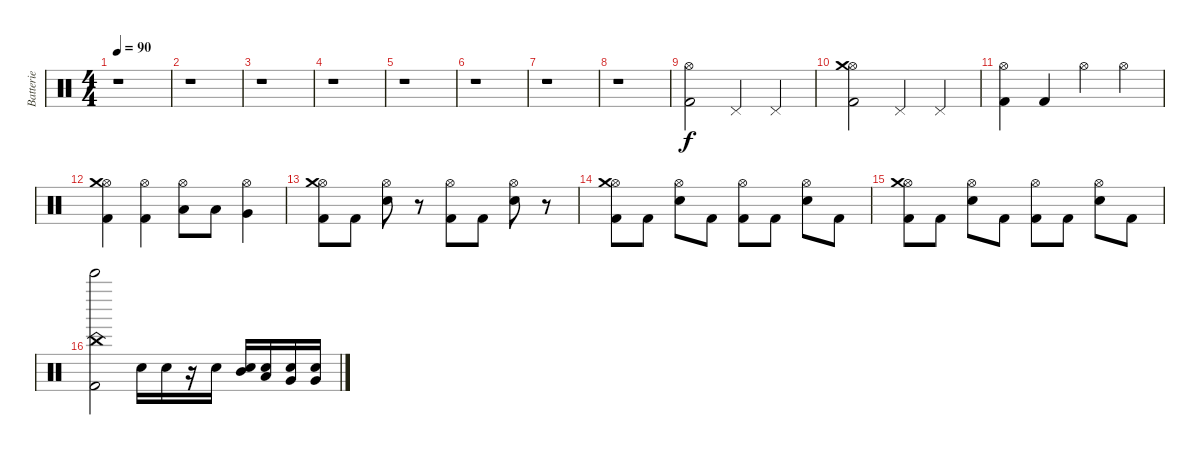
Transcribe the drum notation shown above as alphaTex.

\track ("Batterie" "Batterie") {instrument percussion}
\staff {score}
\articulation defaults
\ts (4 4)
\tempo 90
\clef neutral
\ks c
r.1{dy f} |
r.1 |
r.1 |
r.1 |
r.1 |
r.1 |
r.1 |
r.1 |
("Hi-Hat (open)" "Kick (hit) 2").2 "Pedal Hi-Hat (hit)".4 "Pedal Hi-Hat (hit)".4 |
("Hi-Hat (open)" "Kick (hit) 2" "Crash medium (hit)").2 "Pedal Hi-Hat (hit)".4 "Pedal Hi-Hat (hit)".4 |
("Hi-Hat (open)" "Kick (hit) 2").4 "Kick (hit) 2".4 "Hi-Hat (open)".4 "Hi-Hat (open)".4 |
("Hi-Hat (open)" "Kick (hit) 2" "Crash medium (hit)").4 ("Hi-Hat (open)" "Kick (hit) 2").4 ("Hi-Hat (open)" "Low Tom (hit)").8 "Low Tom (hit)".8 ("Hi-Hat (open)" "Very Low Tom (hit)").4 |
("Hi-Hat (open)" "Kick (hit) 2" "Crash medium (hit)").8 "Kick (hit) 2".8 ("Hi-Hat (open)" "Snare (hit) 2").8 r.8 ("Hi-Hat (open)" "Kick (hit) 2").8 "Kick (hit) 2".8 ("Hi-Hat (open)" "Snare (hit) 2").8 r.8 |
("Hi-Hat (open)" "Kick (hit) 2" "Crash medium (hit)").8 "Kick (hit) 2".8 ("Hi-Hat (open)" "Snare (hit) 2").8 "Kick (hit) 2".8 ("Hi-Hat (open)" "Kick (hit) 2").8 "Kick (hit) 2".8 ("Hi-Hat (open)" "Snare (hit) 2").8 "Kick (hit) 2".8 |
("Hi-Hat (open)" "Kick (hit) 2" "Crash medium (hit)").8 "Kick (hit) 2".8 ("Hi-Hat (open)" "Snare (hit) 2").8 "Kick (hit) 2".8 ("Hi-Hat (open)" "Kick (hit) 2").8 "Kick (hit) 2".8 ("Hi-Hat (open)" "Snare (hit) 2").8 "Kick (hit) 2".8 |
("Bell Tree (hit)" "Kick (hit) 2" "China (hit)").2 "Snare (hit) 2".16 "Snare (hit) 2".16 r.16 "Snare (hit) 2".16 ("Snare (hit) 2" "Mid Tom (hit)").16 ("Snare (hit) 2" "Low Tom (hit)").16 ("Snare (hit) 2" "Very Low Tom (hit)").16 ("Very Low Tom (hit)" "Snare (hit) 2").16
